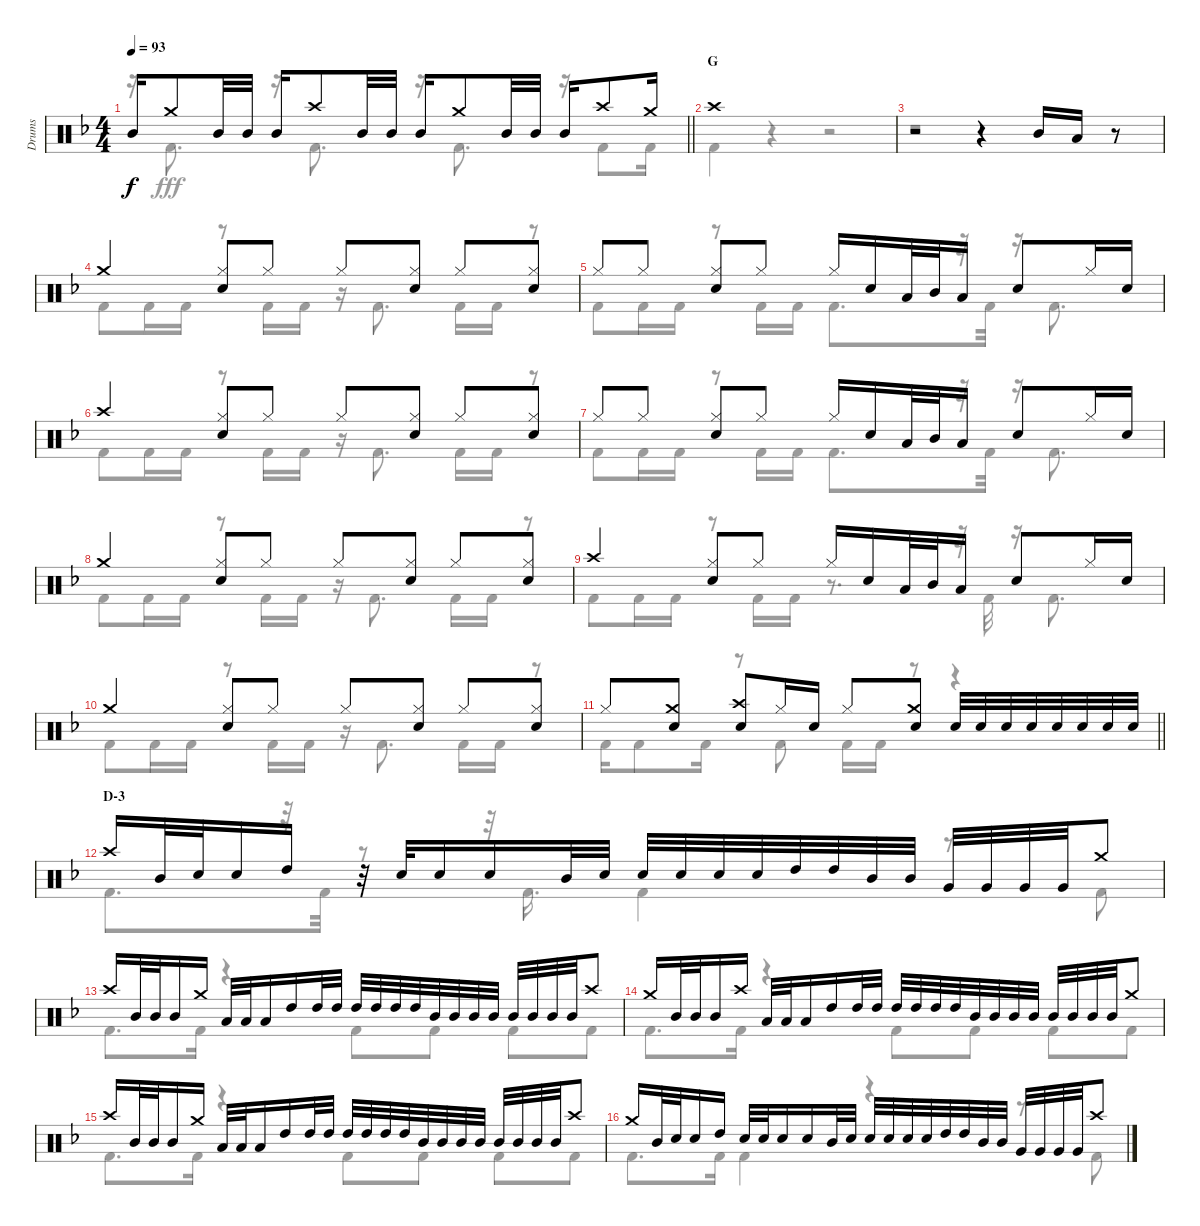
\track ("Drums" "Drums") {instrument percussion}
\staff {score}
\articulation defaults
\voice
\ts (4 4)
\tempo 93
\clef neutral
\barLineRight lightlight
\ks f "Mid Tom (hit)".16{dy f} "Crash medium (hit)".8 "Mid Tom (hit)".32 "Mid Tom (hit)".32 "Mid Tom (hit)".16 "Crash high (hit)".8 "Mid Tom (hit)".32 "Mid Tom (hit)".32 "Mid Tom (hit)".16 "Crash medium (hit)".8 "Mid Tom (hit)".32 "Mid Tom (hit)".32 "Mid Tom (hit)".16 "Crash high (hit)".8 "Crash medium (hit)".16
|
\section ("" "G")
"Crash high (hit)".1 |
r.2 r.4 "Mid Tom (hit)".16 "Low Tom (hit)".16 r.8 |
"Crash medium (hit)".4 ("Hi-Hat (closed)" "Snare (hit) 2").8 "Hi-Hat (closed)".8 "Hi-Hat (closed)".8 ("Hi-Hat (closed)" "Snare (hit) 2").8 "Hi-Hat (closed)".8 ("Hi-Hat (closed)" "Snare (hit) 2").8 |
"Hi-Hat (closed)".8 "Hi-Hat (closed)".8 ("Hi-Hat (closed)" "Snare (hit) 2").8 "Hi-Hat (closed)".8 "Hi-Hat (closed)".16 "Snare (hit) 2".16 "Low Tom (hit)".32 "Mid Tom (hit)".32 "Low Tom (hit)".16 "Snare (hit) 2".8 "Hi-Hat (closed)".16 "Snare (hit) 2".16 |
"Crash high (hit)".4 ("Hi-Hat (closed)" "Snare (hit) 2").8 "Hi-Hat (closed)".8 "Hi-Hat (closed)".8 ("Hi-Hat (closed)" "Snare (hit) 2").8 "Hi-Hat (closed)".8 ("Hi-Hat (closed)" "Snare (hit) 2").8 |
"Hi-Hat (closed)".8 "Hi-Hat (closed)".8 ("Hi-Hat (closed)" "Snare (hit) 2").8 "Hi-Hat (closed)".8 "Hi-Hat (closed)".16 "Snare (hit) 2".16 "Low Tom (hit)".32 "Mid Tom (hit)".32 "Low Tom (hit)".16 "Snare (hit) 2".8 "Hi-Hat (closed)".16 "Snare (hit) 2".16 |
"Crash medium (hit)".4 ("Hi-Hat (closed)" "Snare (hit) 2").8 "Hi-Hat (closed)".8 "Hi-Hat (closed)".8 ("Hi-Hat (closed)" "Snare (hit) 2").8 "Hi-Hat (closed)".8 ("Hi-Hat (closed)" "Snare (hit) 2").8 |
"Crash high (hit)".4 ("Hi-Hat (closed)" "Snare (hit) 2").8 "Hi-Hat (closed)".8 "Hi-Hat (closed)".16 "Snare (hit) 2".16 "Low Tom (hit)".32 "Mid Tom (hit)".32 "Low Tom (hit)".16 "Snare (hit) 2".8 "Hi-Hat (closed)".16 "Snare (hit) 2".16 |
"Crash medium (hit)".4 ("Hi-Hat (closed)" "Snare (hit) 2").8 "Hi-Hat (closed)".8 "Hi-Hat (closed)".8 ("Hi-Hat (closed)" "Snare (hit) 2").8 "Hi-Hat (closed)".8 ("Hi-Hat (closed)" "Snare (hit) 2").8 |
\barLineRight lightlight "Hi-Hat (closed)".8
("Crash medium (hit)" "Snare (hit) 2").8 ("Crash high (hit)" "Snare (hit) 2").8 "Hi-Hat (closed)".16 "Snare (hit) 2".16 "Hi-Hat (closed)".8 ("Crash medium (hit)" "Snare (hit) 2").8 "Snare (hit) 2".32 "Snare (hit) 2".32 "Snare (hit) 2".32 "Snare (hit) 2".32 "Snare (hit) 2".32 "Snare (hit) 2".32 "Snare (hit) 2".32 "Snare (hit) 2".32 |
\section ("" "D-3")
"Crash high (hit)".16 "Mid Tom (hit)".32 "Snare (hit) 2".32 "Snare (hit) 2".16 "High Tom (hit)".16 r.32 "Snare (hit) 2".32 "Snare (hit) 2".16 "Snare (hit) 2".16 "Mid Tom (hit)".32 "Snare (hit) 2".32 "Snare (hit) 2".32 "Snare (hit) 2".32 "Snare (hit) 2".32 "Snare (hit) 2".32 "High Tom (hit)".32 "High Tom (hit)".32 "Mid Tom (hit)".32 "Mid Tom (hit)".32 "Very Low Tom (hit)".32 "Very Low Tom (hit)".32 "Very Low Tom (hit)".32 "Very Low Tom (hit)".32 "Crash medium (hit)".8 |
"Crash high (hit)".16 "Mid Tom (hit)".32 "Mid Tom (hit)".32 "Mid Tom (hit)".16 "Crash medium (hit)".16 "Low Tom (hit)".32 "Low Tom (hit)".32 "Low Tom (hit)".16 "High Tom (hit)".16 "High Tom (hit)".32 "High Tom (hit)".32 "High Tom (hit)".32 "High Tom (hit)".32 "High Tom (hit)".32 "High Tom (hit)".32 "Mid Tom (hit)".32 "Mid Tom (hit)".32 "Mid Tom (hit)".32 "Mid Tom (hit)".32 "Mid Tom (hit)".32 "Mid Tom (hit)".32 "Mid Tom (hit)".32 "Mid Tom (hit)".32 "Crash high (hit)".8 |
"Crash medium (hit)".16 "Mid Tom (hit)".32 "Mid Tom (hit)".32 "Mid Tom (hit)".16 "Crash high (hit)".16 "Low Tom (hit)".32 "Low Tom (hit)".32 "Low Tom (hit)".16 "High Tom (hit)".16 "High Tom (hit)".32 "High Tom (hit)".32 "High Tom (hit)".32 "High Tom (hit)".32 "High Tom (hit)".32 "High Tom (hit)".32 "Mid Tom (hit)".32 "Mid Tom (hit)".32 "Mid Tom (hit)".32 "Mid Tom (hit)".32 "Mid Tom (hit)".32 "Mid Tom (hit)".32 "Mid Tom (hit)".32 "Mid Tom (hit)".32 "Crash medium (hit)".8 |
"Crash high (hit)".16 "Mid Tom (hit)".32 "Mid Tom (hit)".32 "Mid Tom (hit)".16 "Crash medium (hit)".16 "Low Tom (hit)".32 "Low Tom (hit)".32 "Low Tom (hit)".16 "High Tom (hit)".16 "High Tom (hit)".32 "High Tom (hit)".32 "High Tom (hit)".32 "High Tom (hit)".32 "High Tom (hit)".32 "High Tom (hit)".32 "Mid Tom (hit)".32 "Mid Tom (hit)".32 "Mid Tom (hit)".32 "Mid Tom (hit)".32 "Mid Tom (hit)".32 "Mid Tom (hit)".32 "Mid Tom (hit)".32 "Mid Tom (hit)".32 "Crash high (hit)".8 |
"Crash medium (hit)".16 "Mid Tom (hit)".32 "Snare (hit) 2".32 "Snare (hit) 2".16 "High Tom (hit)".16 "Snare (hit) 2".32 "Snare (hit) 2".32 "Snare (hit) 2".16 "Snare (hit) 2".16 "Mid Tom (hit)".32 "Snare (hit) 2".32 "Snare (hit) 2".32 "Snare (hit) 2".32 "Snare (hit) 2".32 "Snare (hit) 2".32 "High Tom (hit)".32 "High Tom (hit)".32 "Mid Tom (hit)".32 "Mid Tom (hit)".32 "Very Low Tom (hit)".32 "Very Low Tom (hit)".32 "Very Low Tom (hit)".32 "Very Low Tom (hit)".32 "Crash high (hit)".8
\voice
\clef neutral
\ottava regular
\simile none
\barLineRight lightlight
\ks f
r.16{dy fff} "Kick (hit) 2".8{d} r.16 "Kick (hit) 2".8{d} r.16 "Kick (hit) 2".8{d} r.16 "Kick (hit) 2".8 "Kick (hit) 2".16 |
"Kick (hit) 2".4 r.4 r.2 |
r.1 |
"Kick (hit) 2".8 "Kick (hit) 2".16 "Kick (hit) 2".16 r.8 "Kick (hit) 2".16 "Kick (hit) 2".16 r.16 "Kick (hit) 2".8{d} "Kick (hit) 2".16 "Kick (hit) 2".16 r.8 |
"Kick (hit) 2".8 "Kick (hit) 2".16 "Kick (hit) 2".16 r.8 "Kick (hit) 2".16 "Kick (hit) 2".16 "Kick (hit) 2".8{d} r.32 "Kick (hit) 2".32 r.16 "Kick (hit) 2".8{d} |
"Kick (hit) 2".8 "Kick (hit) 2".16 "Kick (hit) 2".16 r.8 "Kick (hit) 2".16 "Kick (hit) 2".16 r.16 "Kick (hit) 2".8{d} "Kick (hit) 2".16 "Kick (hit) 2".16 r.8 |
"Kick (hit) 2".8 "Kick (hit) 2".16 "Kick (hit) 2".16 r.8 "Kick (hit) 2".16 "Kick (hit) 2".16 "Kick (hit) 2".8{d} r.32 "Kick (hit) 2".32 r.16 "Kick (hit) 2".8{d} |
"Kick (hit) 2".8 "Kick (hit) 2".16 "Kick (hit) 2".16 r.8 "Kick (hit) 2".16 "Kick (hit) 2".16 r.16 "Kick (hit) 2".8{d} "Kick (hit) 2".16 "Kick (hit) 2".16 r.8 |
"Kick (hit) 2".8 "Kick (hit) 2".16 "Kick (hit) 2".16 r.8 "Kick (hit) 2".16 "Kick (hit) 2".16 r.8{d} r.32 "Kick (hit) 2".32 r.16 "Kick (hit) 2".8{d} |
"Kick (hit) 2".8 "Kick (hit) 2".16 "Kick (hit) 2".16 r.8 "Kick (hit) 2".16 "Kick (hit) 2".16 r.16 "Kick (hit) 2".8{d} "Kick (hit) 2".16 "Kick (hit) 2".16 r.8 |
\barLineRight lightlight "Kick (hit) 2".16 "Kick (hit) 2".8 "Kick (hit) 2".16
r.8 "Kick (hit) 2".8 "Kick (hit) 2".16 "Kick (hit) 2".16 r.8 r.4 |
"Kick (hit) 2".8{d} r.32 "Kick (hit) 2".32 r.8 r.32 "Kick (hit) 2".16{d} "Kick (hit) 2".4 r.8 "Kick (hit) 2".8 |
"Kick (hit) 2".8{d} "Kick (hit) 2".16 r.4 "Kick (hit) 2".8 "Kick (hit) 2".8 "Kick (hit) 2".8 "Kick (hit) 2".8 |
"Kick (hit) 2".8{d} "Kick (hit) 2".16 r.4 "Kick (hit) 2".8 "Kick (hit) 2".8 "Kick (hit) 2".8 "Kick (hit) 2".8 |
"Kick (hit) 2".8{d} "Kick (hit) 2".16 r.4 "Kick (hit) 2".8 "Kick (hit) 2".8 "Kick (hit) 2".8 "Kick (hit) 2".8 |
"Kick (hit) 2".8{d} "Kick (hit) 2".16 "Kick (hit) 2".4 r.4 r.8 "Kick (hit) 2".8
